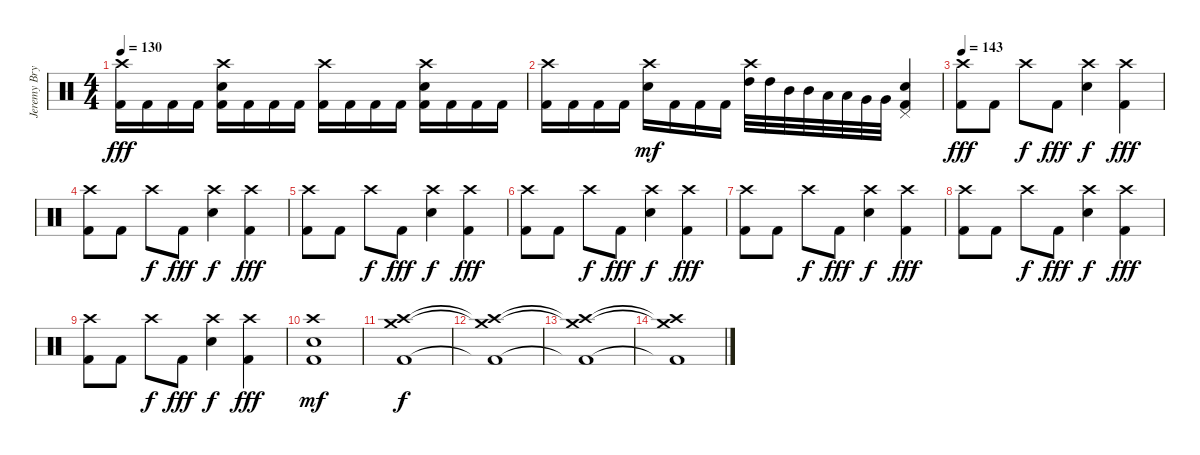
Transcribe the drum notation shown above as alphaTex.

\track ("Jeremy Bryan - Drums" "Jeremy Bry") {instrument percussion}
\staff {score}
\articulation defaults
\ts (4 4)
\tempo 130
\clef neutral
\ks c
("Crash high (hit)" "Kick (hit) 2").16{dy fff} "Kick (hit) 2".16 "Kick (hit) 2".16 "Kick (hit) 2".16 ("Crash high (hit)" "Electric Snare (hit)" "Kick (hit) 2").16 "Kick (hit) 2".16 "Kick (hit) 2".16 "Kick (hit) 2".16 ("Crash high (hit)" "Kick (hit) 2").16 "Kick (hit) 2".16 "Kick (hit) 2".16 "Kick (hit) 2".16 ("Crash high (hit)" "Electric Snare (hit)" "Kick (hit) 2").16 "Kick (hit) 2".16 "Kick (hit) 2".16 "Kick (hit) 2".16 |
("Crash high (hit)" "Kick (hit) 2").16 "Kick (hit) 2".16 "Kick (hit) 2".16 "Kick (hit) 2".16 ("Crash high (hit)" "Electric Snare (hit)").16{dy mf} "Kick (hit) 2".16 "Kick (hit) 2".16 "Kick (hit) 2".16 ("Crash high (hit)" "High Tom (hit)").32 "High Tom (hit)".32 "Mid Tom (hit)".32 "Mid Tom (hit)".32 "Low Tom (hit)".32 "Low Tom (hit)".32 "Very Low Tom (hit)".32 "Very Low Tom (hit)".32 ("Pedal Hi-Hat (hit)" "Electric Snare (hit)" "Kick (hit) 2").4 |
\tempo 143
("Crash high (hit)" "Kick (hit) 2").8{dy fff} "Kick (hit) 2".8 "Crash high (hit)".8{dy f} "Kick (hit) 2".8{dy fff} ("Crash high (hit)" "Electric Snare (hit)").4{dy f} ("Crash high (hit)" "Kick (hit) 2").4{dy fff} |
("Crash high (hit)" "Kick (hit) 2").8 "Kick (hit) 2".8 "Crash high (hit)".8{dy f} "Kick (hit) 2".8{dy fff} ("Crash high (hit)" "Electric Snare (hit)").4{dy f} ("Crash high (hit)" "Kick (hit) 2").4{dy fff} |
("Crash high (hit)" "Kick (hit) 2").8 "Kick (hit) 2".8 "Crash high (hit)".8{dy f} "Kick (hit) 2".8{dy fff} ("Crash high (hit)" "Electric Snare (hit)").4{dy f} ("Crash high (hit)" "Kick (hit) 2").4{dy fff} |
("Crash high (hit)" "Kick (hit) 2").8 "Kick (hit) 2".8 "Crash high (hit)".8{dy f} "Kick (hit) 2".8{dy fff} ("Crash high (hit)" "Electric Snare (hit)").4{dy f} ("Crash high (hit)" "Kick (hit) 2").4{dy fff} |
("Crash high (hit)" "Kick (hit) 2").8 "Kick (hit) 2".8 "Crash high (hit)".8{dy f} "Kick (hit) 2".8{dy fff} ("Crash high (hit)" "Electric Snare (hit)").4{dy f} ("Crash high (hit)" "Kick (hit) 2").4{dy fff} |
("Crash high (hit)" "Kick (hit) 2").8 "Kick (hit) 2".8 "Crash high (hit)".8{dy f} "Kick (hit) 2".8{dy fff} ("Crash high (hit)" "Electric Snare (hit)").4{dy f} ("Crash high (hit)" "Kick (hit) 2").4{dy fff} |
("Crash high (hit)" "Kick (hit) 2").8 "Kick (hit) 2".8 "Crash high (hit)".8{dy f} "Kick (hit) 2".8{dy fff} ("Crash high (hit)" "Electric Snare (hit)").4{dy f} ("Crash high (hit)" "Kick (hit) 2").4{dy fff} |
("Crash high (hit)" "Electric Snare (hit)" "Kick (hit) 2").1{dy mf} |
("Crash high (hit)" "Crash medium (hit)" "Kick (hit) 2").1{dy f} |
("Crash high (hit)"{t} "Crash medium (hit)"{t} "Kick (hit) 2"{t}).1 |
("Crash high (hit)"{t} "Crash medium (hit)"{t} "Kick (hit) 2"{t}).1 |
("Crash high (hit)"{t} "Crash medium (hit)"{t} "Kick (hit) 2"{t}).1
